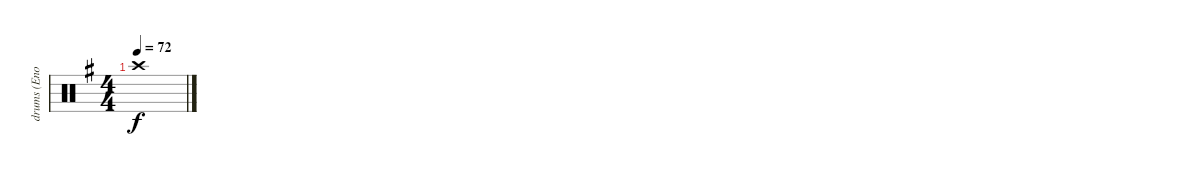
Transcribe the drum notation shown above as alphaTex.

\track ("drums (Enoch)" "drums (Eno") {instrument percussion}
\staff {score}
\articulation defaults
\ts (4 4)
\tempo 72
\clef neutral
\ks g "Crash high (hit)".1{dy f}
